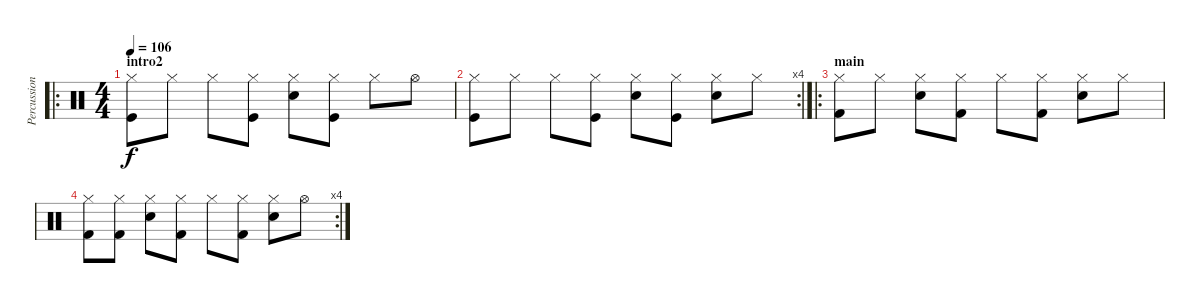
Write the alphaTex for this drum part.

\track ("Percussion" "Percussion") {instrument percussion}
\staff {score}
\articulation defaults
\ro
\ts (4 4)
\section ("" "intro2")
\tempo 106
\clef neutral
\ks c
("Hi-Hat (closed)" "Kick (hit)").8{dy f} "Hi-Hat (closed)".8 "Hi-Hat (closed)".8 ("Hi-Hat (closed)" "Kick (hit)").8 ("Hi-Hat (closed)" "Electric Snare (hit)").8 ("Hi-Hat (closed)" "Kick (hit)").8 "Hi-Hat (closed)".8 "Hi-Hat (open)".8 |
\rc 4
("Hi-Hat (closed)" "Kick (hit)").8 "Hi-Hat (closed)".8 "Hi-Hat (closed)".8 ("Hi-Hat (closed)" "Kick (hit)").8 ("Hi-Hat (closed)" "Electric Snare (hit)").8 ("Hi-Hat (closed)" "Kick (hit)").8 ("Hi-Hat (closed)" "Electric Snare (hit)").8 "Hi-Hat (closed)".8 |
\ro
\section ("" "main")
("Hi-Hat (closed)" "Kick (hit) 2").8 "Hi-Hat (closed)".8 ("Hi-Hat (closed)" "Electric Snare (hit)").8 ("Hi-Hat (closed)" "Kick (hit) 2").8 "Hi-Hat (closed)".8 ("Hi-Hat (closed)" "Kick (hit) 2").8 ("Hi-Hat (closed)" "Electric Snare (hit)").8 "Hi-Hat (closed)".8 |
\rc 4
("Hi-Hat (closed)" "Kick (hit) 2").8 ("Hi-Hat (closed)" "Kick (hit) 2").8 ("Hi-Hat (closed)" "Electric Snare (hit)").8 ("Hi-Hat (closed)" "Kick (hit) 2").8 "Hi-Hat (closed)".8 ("Hi-Hat (closed)" "Kick (hit) 2").8 ("Hi-Hat (closed)" "Electric Snare (hit)").8 "Hi-Hat (open)".8
